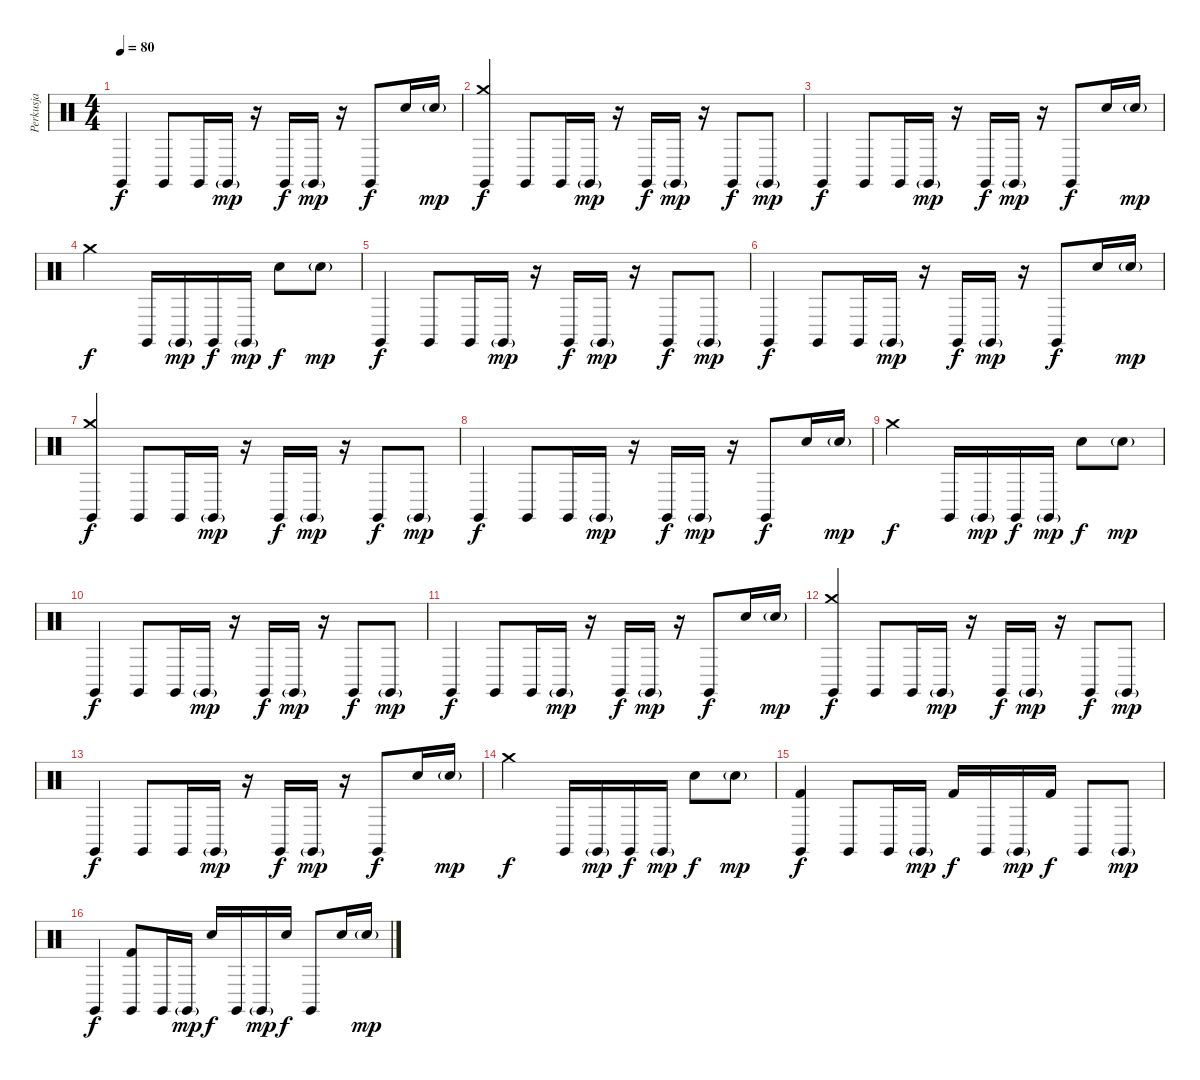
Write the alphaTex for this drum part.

\track ("Perkusja" "Perkusja") {instrument percussion}
\staff {score}
\articulation defaults
\ts (4 4)
\tempo 80
\clef neutral
\ks c "Claves (hit)".4{dy f} "Claves (hit)".8 "Claves (hit)".16 "Claves (hit)"{g}.16{dy mp}
r.16 "Claves (hit)".16{dy f} "Claves (hit)"{g}.16{dy mp} r.16 "Claves (hit)".8{dy f} "Snare (hit) 2".16 "Snare (hit) 2"{g}.16{dy mp} |
("Crash medium (hit)" "Claves (hit)").4{dy f} "Claves (hit)".8 "Claves (hit)".16 "Claves (hit)"{g}.16{dy mp} r.16 "Claves (hit)".16{dy f} "Claves (hit)"{g}.16{dy mp} r.16 "Claves (hit)".8{dy f} "Claves (hit)"{g}.8{dy mp} |
"Claves (hit)".4{dy f} "Claves (hit)".8 "Claves (hit)".16 "Claves (hit)"{g}.16{dy mp} r.16 "Claves (hit)".16{dy f} "Claves (hit)"{g}.16{dy mp} r.16 "Claves (hit)".8{dy f} "Snare (hit) 2".16 "Snare (hit) 2"{g}.16{dy mp} |
"Crash medium (hit)".2{dy f} "Claves (hit)".16 "Claves (hit)"{g}.16{dy mp} "Claves (hit)".16{dy f} "Claves (hit)"{g}.16{dy mp} "Snare (hit) 2".8{dy f} "Snare (hit) 2"{g}.8{dy mp} |
"Claves (hit)".4{dy f} "Claves (hit)".8 "Claves (hit)".16 "Claves (hit)"{g}.16{dy mp} r.16 "Claves (hit)".16{dy f} "Claves (hit)"{g}.16{dy mp} r.16 "Claves (hit)".8{dy f} "Claves (hit)"{g}.8{dy mp} |
"Claves (hit)".4{dy f} "Claves (hit)".8 "Claves (hit)".16 "Claves (hit)"{g}.16{dy mp} r.16 "Claves (hit)".16{dy f} "Claves (hit)"{g}.16{dy mp} r.16 "Claves (hit)".8{dy f} "Snare (hit) 2".16 "Snare (hit) 2"{g}.16{dy mp} |
("Crash medium (hit)" "Claves (hit)").4{dy f} "Claves (hit)".8 "Claves (hit)".16 "Claves (hit)"{g}.16{dy mp} r.16 "Claves (hit)".16{dy f} "Claves (hit)"{g}.16{dy mp} r.16 "Claves (hit)".8{dy f} "Claves (hit)"{g}.8{dy mp} |
"Claves (hit)".4{dy f} "Claves (hit)".8 "Claves (hit)".16 "Claves (hit)"{g}.16{dy mp} r.16 "Claves (hit)".16{dy f} "Claves (hit)"{g}.16{dy mp} r.16 "Claves (hit)".8{dy f} "Snare (hit) 2".16 "Snare (hit) 2"{g}.16{dy mp} |
"Crash medium (hit)".2{dy f} "Claves (hit)".16 "Claves (hit)"{g}.16{dy mp} "Claves (hit)".16{dy f} "Claves (hit)"{g}.16{dy mp} "Snare (hit) 2".8{dy f} "Snare (hit) 2"{g}.8{dy mp} |
"Claves (hit)".4{dy f} "Claves (hit)".8 "Claves (hit)".16 "Claves (hit)"{g}.16{dy mp} r.16 "Claves (hit)".16{dy f} "Claves (hit)"{g}.16{dy mp} r.16 "Claves (hit)".8{dy f} "Claves (hit)"{g}.8{dy mp} |
"Claves (hit)".4{dy f} "Claves (hit)".8 "Claves (hit)".16 "Claves (hit)"{g}.16{dy mp} r.16 "Claves (hit)".16{dy f} "Claves (hit)"{g}.16{dy mp} r.16 "Claves (hit)".8{dy f} "Snare (hit) 2".16 "Snare (hit) 2"{g}.16{dy mp} |
("Crash medium (hit)" "Claves (hit)").4{dy f} "Claves (hit)".8 "Claves (hit)".16 "Claves (hit)"{g}.16{dy mp} r.16 "Claves (hit)".16{dy f} "Claves (hit)"{g}.16{dy mp} r.16 "Claves (hit)".8{dy f} "Claves (hit)"{g}.8{dy mp} |
"Claves (hit)".4{dy f} "Claves (hit)".8 "Claves (hit)".16 "Claves (hit)"{g}.16{dy mp} r.16 "Claves (hit)".16{dy f} "Claves (hit)"{g}.16{dy mp} r.16 "Claves (hit)".8{dy f} "Snare (hit) 2".16 "Snare (hit) 2"{g}.16{dy mp} |
"Crash medium (hit)".2{dy f} "Claves (hit)".16 "Claves (hit)"{g}.16{dy mp} "Claves (hit)".16{dy f} "Claves (hit)"{g}.16{dy mp} "Snare (hit) 2".8{dy f} "Snare (hit) 2"{g}.8{dy mp} |
("Claves (hit)" "Kick (hit) 2").4{dy f} "Claves (hit)".8 "Claves (hit)".16 "Claves (hit)"{g}.16{dy mp} "Kick (hit) 2".16{dy f} "Claves (hit)".16 "Claves (hit)"{g}.16{dy mp} "Kick (hit) 2".16{dy f} "Claves (hit)".8 "Claves (hit)"{g}.8{dy mp} |
"Claves (hit)".4{dy f} ("Claves (hit)" "Kick (hit) 2").8 "Claves (hit)".16 "Claves (hit)"{g}.16{dy mp} "Snare (hit) 2".16{dy f} "Claves (hit)".16 "Claves (hit)"{g}.16{dy mp} "Snare (hit) 2".16{dy f} "Claves (hit)".8 "Snare (hit) 2".16 "Snare (hit) 2"{g}.16{dy mp}
